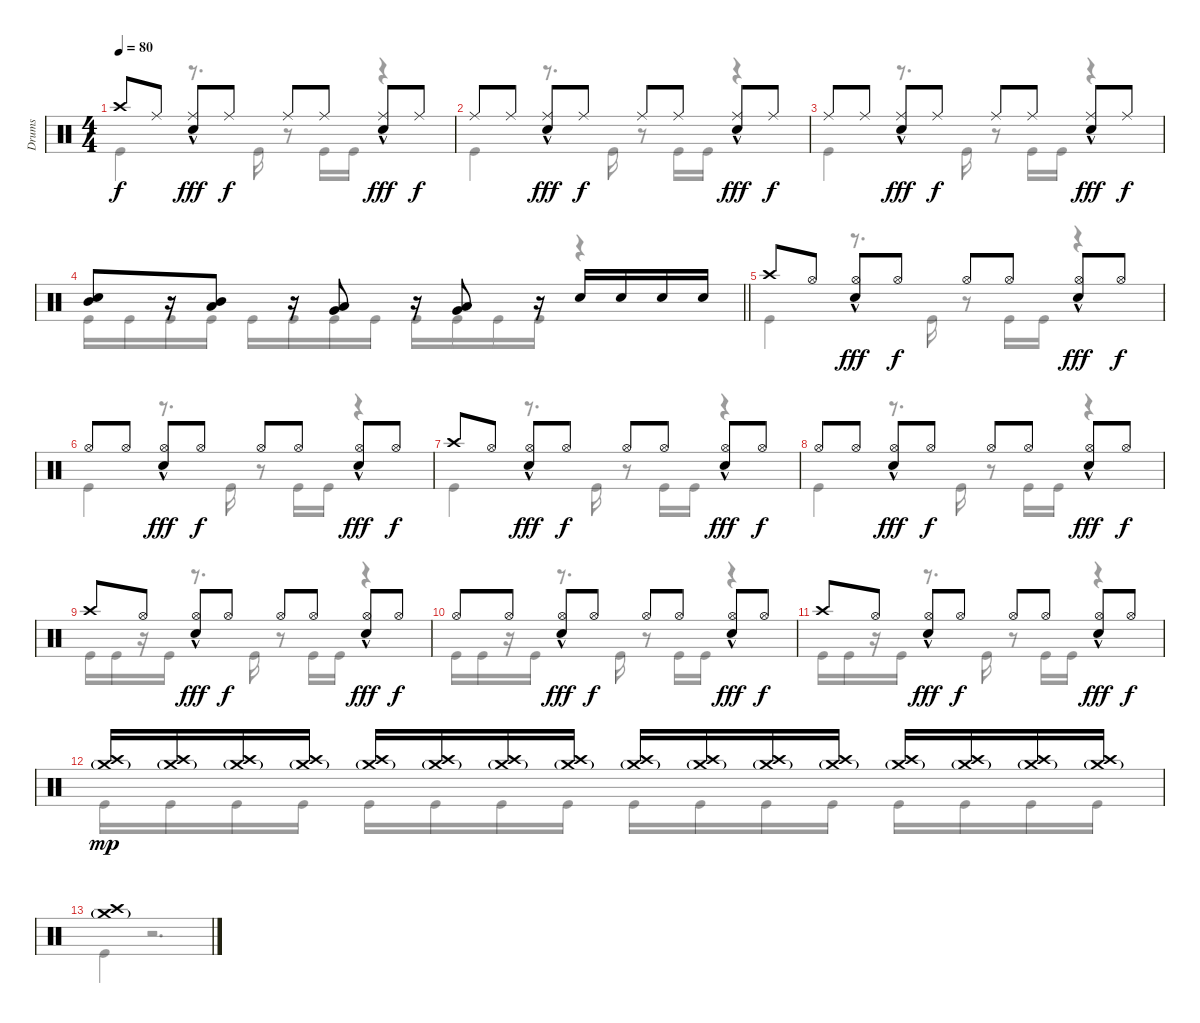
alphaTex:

\track ("Drums" "Drums") {instrument percussion}
\staff {score}
\articulation defaults
\voice
\ts (4 4)
\tempo 80
\clef neutral
\ks c "Crash high (hit)".8{dy f} "Ride (middle)".8
("Ride (middle)" "Snare (hit) 2"{hac}).8{dy fff} "Ride (middle)".8{dy f} "Ride (middle)".8 "Ride (middle)".8 ("Ride (middle)" "Snare (hit) 2"{hac}).8{dy fff} "Ride (middle)".8{dy f} |
"Ride (middle)".8 "Ride (middle)".8 ("Ride (middle)" "Snare (hit) 2"{hac}).8{dy fff} "Ride (middle)".8{dy f} "Ride (middle)".8 "Ride (middle)".8 ("Ride (middle)" "Snare (hit) 2"{hac}).8{dy fff} "Ride (middle)".8{dy f} |
"Ride (middle)".8 "Ride (middle)".8 ("Ride (middle)" "Snare (hit) 2"{hac}).8{dy fff} "Ride (middle)".8{dy f} "Ride (middle)".8 "Ride (middle)".8 ("Ride (middle)" "Snare (hit) 2"{hac}).8{dy fff} "Ride (middle)".8{dy f} |
\barLineRight lightlight
("Snare (hit) 2" "Mid Tom (hit)").8 r.16 ("Low Tom (hit)" "Mid Tom (hit)").8 r.16 ("Low Tom (hit)" "Very Low Tom (hit)").8 r.16 ("Low Tom (hit)" "Very Low Tom (hit)").8 r.16 "Snare (hit) 2".16 "Snare (hit) 2".16 "Snare (hit) 2".16 "Snare (hit) 2".16 |
"Crash high (hit)".8 "Hi-Hat (open)".8 ("Hi-Hat (open)" "Snare (hit) 2"{hac}).8{dy fff} "Hi-Hat (open)".8{dy f} "Hi-Hat (open)".8 "Hi-Hat (open)".8 ("Hi-Hat (open)" "Snare (hit) 2"{hac}).8{dy fff} "Hi-Hat (open)".8{dy f} |
"Hi-Hat (open)".8 "Hi-Hat (open)".8 ("Hi-Hat (open)" "Snare (hit) 2"{hac}).8{dy fff} "Hi-Hat (open)".8{dy f} "Hi-Hat (open)".8 "Hi-Hat (open)".8 ("Hi-Hat (open)" "Snare (hit) 2"{hac}).8{dy fff} "Hi-Hat (open)".8{dy f} |
"Crash high (hit)".8 "Hi-Hat (open)".8 ("Hi-Hat (open)" "Snare (hit) 2"{hac}).8{dy fff} "Hi-Hat (open)".8{dy f} "Hi-Hat (open)".8 "Hi-Hat (open)".8 ("Hi-Hat (open)" "Snare (hit) 2"{hac}).8{dy fff} "Hi-Hat (open)".8{dy f} |
"Hi-Hat (open)".8 "Hi-Hat (open)".8 ("Hi-Hat (open)" "Snare (hit) 2"{hac}).8{dy fff} "Hi-Hat (open)".8{dy f} "Hi-Hat (open)".8 "Hi-Hat (open)".8 ("Hi-Hat (open)" "Snare (hit) 2"{hac}).8{dy fff} "Hi-Hat (open)".8{dy f} |
"Crash high (hit)".8 "Hi-Hat (open)".8 ("Hi-Hat (open)" "Snare (hit) 2"{hac}).8{dy fff} "Hi-Hat (open)".8{dy f} "Hi-Hat (open)".8 "Hi-Hat (open)".8 ("Hi-Hat (open)" "Snare (hit) 2"{hac}).8{dy fff} "Hi-Hat (open)".8{dy f} |
"Hi-Hat (open)".8 "Hi-Hat (open)".8 ("Hi-Hat (open)" "Snare (hit) 2"{hac}).8{dy fff} "Hi-Hat (open)".8{dy f} "Hi-Hat (open)".8 "Hi-Hat (open)".8 ("Hi-Hat (open)" "Snare (hit) 2"{hac}).8{dy fff} "Hi-Hat (open)".8{dy f} |
"Crash high (hit)".8 "Hi-Hat (open)".8 ("Hi-Hat (open)" "Snare (hit) 2"{hac}).8{dy fff} "Hi-Hat (open)".8{dy f} "Hi-Hat (open)".8 "Hi-Hat (open)".8 ("Hi-Hat (open)" "Snare (hit) 2"{hac}).8{dy fff} "Hi-Hat (open)".8{dy f} |
("Crash high (hit)" "Crash medium (hit)"{g}).16{dy mp} ("Crash high (hit)" "Crash medium (hit)"{g}).16 ("Crash high (hit)" "Crash medium (hit)"{g}).16 ("Crash high (hit)" "Crash medium (hit)"{g}).16 ("Crash high (hit)" "Crash medium (hit)"{g}).16 ("Crash high (hit)" "Crash medium (hit)"{g}).16 ("Crash high (hit)" "Crash medium (hit)"{g}).16 ("Crash high (hit)" "Crash medium (hit)"{g}).16 ("Crash high (hit)" "Crash medium (hit)"{g}).16 ("Crash high (hit)" "Crash medium (hit)"{g}).16 ("Crash high (hit)" "Crash medium (hit)"{g}).16 ("Crash high (hit)" "Crash medium (hit)"{g}).16 ("Crash high (hit)" "Crash medium (hit)"{g}).16 ("Crash high (hit)" "Crash medium (hit)"{g}).16 ("Crash high (hit)" "Crash medium (hit)"{g}).16 ("Crash high (hit)" "Crash medium (hit)"{g}).16 |
("Crash high (hit)" "Crash medium (hit)"{g}).1 |
|
|
\voice
\clef neutral
\ottava regular
\simile none
\ks c "Kick (hit)".4{dy f}
r.8{d} "Kick (hit)".16 r.8 "Kick (hit)".16 "Kick (hit)".16 r.4 |
"Kick (hit)".4 r.8{d} "Kick (hit)".16 r.8 "Kick (hit)".16 "Kick (hit)".16 r.4 |
"Kick (hit)".4 r.8{d} "Kick (hit)".16 r.8 "Kick (hit)".16 "Kick (hit)".16 r.4 |
\barLineRight lightlight "Kick (hit)".16 "Kick (hit)".16 "Kick (hit)".16 "Kick (hit)".16 "Kick (hit)".16 "Kick (hit)".16 "Kick (hit)".16 "Kick (hit)".16 "Kick (hit)".16 "Kick (hit)".16 "Kick (hit)".16 "Kick (hit)".16
r.4 |
"Kick (hit)".4 r.8{d} "Kick (hit)".16 r.8 "Kick (hit)".16 "Kick (hit)".16 r.4 |
"Kick (hit)".4 r.8{d} "Kick (hit)".16 r.8 "Kick (hit)".16 "Kick (hit)".16 r.4 |
"Kick (hit)".4 r.8{d} "Kick (hit)".16 r.8 "Kick (hit)".16 "Kick (hit)".16 r.4 |
"Kick (hit)".4 r.8{d} "Kick (hit)".16 r.8 "Kick (hit)".16 "Kick (hit)".16 r.4 |
"Kick (hit)".16 "Kick (hit)".16 r.16 "Kick (hit)".16 r.8{d} "Kick (hit)".16 r.8 "Kick (hit)".16 "Kick (hit)".16 r.4 |
"Kick (hit)".16 "Kick (hit)".16 r.16 "Kick (hit)".16 r.8{d} "Kick (hit)".16 r.8 "Kick (hit)".16 "Kick (hit)".16 r.4 |
"Kick (hit)".16 "Kick (hit)".16 r.16 "Kick (hit)".16 r.8{d} "Kick (hit)".16 r.8 "Kick (hit)".16 "Kick (hit)".16 r.4 |
"Kick (hit)".16 "Kick (hit)".16 "Kick (hit)".16 "Kick (hit)".16 "Kick (hit)".16 "Kick (hit)".16 "Kick (hit)".16 "Kick (hit)".16 "Kick (hit)".16 "Kick (hit)".16 "Kick (hit)".16 "Kick (hit)".16 "Kick (hit)".16 "Kick (hit)".16 "Kick (hit)".16 "Kick (hit)".16 |
"Kick (hit)".4 r.2{d} |
|
|
